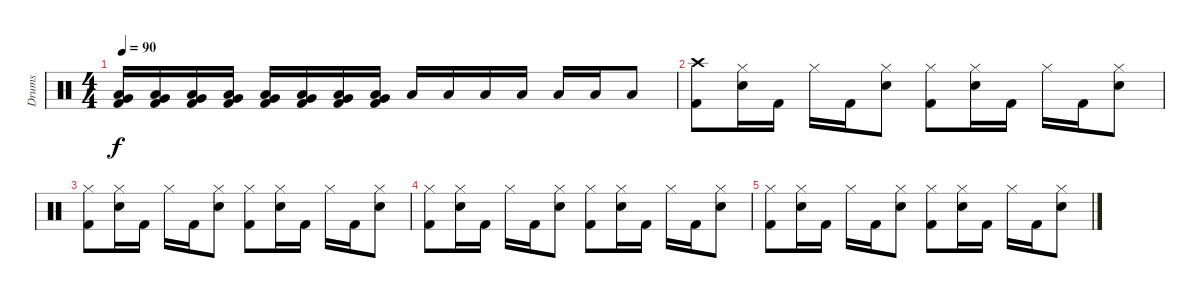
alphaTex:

\track ("Drums" "Drums") {mute instrument percussion}
\staff {score}
\articulation defaults
\ts (4 4)
\tempo 90
\clef neutral
\ks c
("Kick (hit) 2" "Very Low Tom (hit)" "Low Floor Tom (hit)").16{dy f} ("Kick (hit) 2" "Very Low Tom (hit)" "Low Floor Tom (hit)").16 ("Kick (hit) 2" "Very Low Tom (hit)" "Low Floor Tom (hit)").16 ("Kick (hit) 2" "Very Low Tom (hit)" "Low Floor Tom (hit)").16 ("Kick (hit) 2" "Very Low Tom (hit)" "Low Floor Tom (hit)").16 ("Kick (hit) 2" "Very Low Tom (hit)" "Low Floor Tom (hit)").16 ("Kick (hit) 2" "Very Low Tom (hit)" "Low Floor Tom (hit)").16 ("Kick (hit) 2" "Very Low Tom (hit)" "Low Floor Tom (hit)").16 "Low Tom (hit)".16 "Low Tom (hit)".16 "Low Tom (hit)".16 "Low Tom (hit)".16 "Low Tom (hit)".16 "Low Tom (hit)".16 "Low Tom (hit)".8 |
("Kick (hit) 2" "Crash high (hit)").8 ("Snare (hit) 2" "Hi-Hat (closed)").16 "Kick (hit) 2".16 "Hi-Hat (closed)".16 "Kick (hit) 2".16 ("Snare (hit) 2" "Hi-Hat (closed)").8 ("Kick (hit) 2" "Hi-Hat (closed)").8 ("Snare (hit) 2" "Hi-Hat (closed)").16 "Kick (hit) 2".16 "Hi-Hat (closed)".16 "Kick (hit) 2".16 ("Snare (hit) 2" "Hi-Hat (closed)").8 |
("Kick (hit) 2" "Hi-Hat (closed)").8 ("Snare (hit) 2" "Hi-Hat (closed)").16 "Kick (hit) 2".16 "Hi-Hat (closed)".16 "Kick (hit) 2".16 ("Snare (hit) 2" "Hi-Hat (closed)").8 ("Kick (hit) 2" "Hi-Hat (closed)").8 ("Snare (hit) 2" "Hi-Hat (closed)").16 "Kick (hit) 2".16 "Hi-Hat (closed)".16 "Kick (hit) 2".16 ("Snare (hit) 2" "Hi-Hat (closed)").8 |
("Kick (hit) 2" "Hi-Hat (closed)").8 ("Snare (hit) 2" "Hi-Hat (closed)").16 "Kick (hit) 2".16 "Hi-Hat (closed)".16 "Kick (hit) 2".16 ("Snare (hit) 2" "Hi-Hat (closed)").8 ("Kick (hit) 2" "Hi-Hat (closed)").8 ("Snare (hit) 2" "Hi-Hat (closed)").16 "Kick (hit) 2".16 "Hi-Hat (closed)".16 "Kick (hit) 2".16 ("Snare (hit) 2" "Hi-Hat (closed)").8 |
("Kick (hit) 2" "Hi-Hat (closed)").8 ("Snare (hit) 2" "Hi-Hat (closed)").16 "Kick (hit) 2".16 "Hi-Hat (closed)".16 "Kick (hit) 2".16 ("Snare (hit) 2" "Hi-Hat (closed)").8 ("Kick (hit) 2" "Hi-Hat (closed)").8 ("Snare (hit) 2" "Hi-Hat (closed)").16 "Kick (hit) 2".16 "Hi-Hat (closed)".16 "Kick (hit) 2".16 ("Snare (hit) 2" "Hi-Hat (closed)").8
